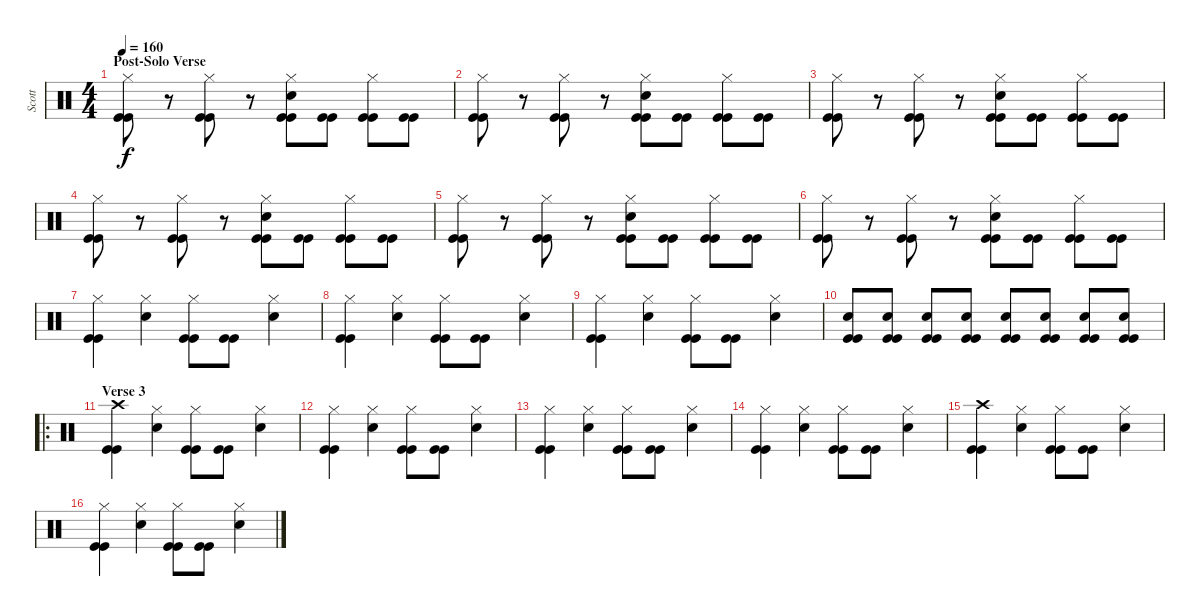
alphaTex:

\track ("Scott" "Scott") {instrument percussion}
\staff {score}
\articulation defaults
\ts (4 4)
\section ("" "Post-Solo Verse")
\tempo 160
\clef neutral
\ks c
("Hi-Hat (closed)" "Kick (hit)" "Kick (hit)").8{dy f} r.8 ("Hi-Hat (closed)" "Kick (hit)" "Kick (hit)").8 r.8 ("Hi-Hat (closed)" "Snare (hit) 2" "Kick (hit)" "Kick (hit)").8 ("Kick (hit)" "Kick (hit)").8 ("Hi-Hat (closed)" "Kick (hit)" "Kick (hit)").8 ("Kick (hit)" "Kick (hit)").8 |
("Hi-Hat (closed)" "Kick (hit)" "Kick (hit)").8 r.8 ("Hi-Hat (closed)" "Kick (hit)" "Kick (hit)").8 r.8 ("Hi-Hat (closed)" "Snare (hit) 2" "Kick (hit)" "Kick (hit)").8 ("Kick (hit)" "Kick (hit)").8 ("Hi-Hat (closed)" "Kick (hit)" "Kick (hit)").8 ("Kick (hit)" "Kick (hit)").8 |
("Hi-Hat (closed)" "Kick (hit)" "Kick (hit)").8 r.8 ("Hi-Hat (closed)" "Kick (hit)" "Kick (hit)").8 r.8 ("Hi-Hat (closed)" "Snare (hit) 2" "Kick (hit)" "Kick (hit)").8 ("Kick (hit)" "Kick (hit)").8 ("Hi-Hat (closed)" "Kick (hit)" "Kick (hit)").8 ("Kick (hit)" "Kick (hit)").8 |
("Hi-Hat (closed)" "Kick (hit)" "Kick (hit)").8 r.8 ("Hi-Hat (closed)" "Kick (hit)" "Kick (hit)").8 r.8 ("Hi-Hat (closed)" "Snare (hit) 2" "Kick (hit)" "Kick (hit)").8 ("Kick (hit)" "Kick (hit)").8 ("Hi-Hat (closed)" "Kick (hit)" "Kick (hit)").8 ("Kick (hit)" "Kick (hit)").8 |
("Hi-Hat (closed)" "Kick (hit)" "Kick (hit)").8 r.8 ("Hi-Hat (closed)" "Kick (hit)" "Kick (hit)").8 r.8 ("Hi-Hat (closed)" "Snare (hit) 2" "Kick (hit)" "Kick (hit)").8 ("Kick (hit)" "Kick (hit)").8 ("Hi-Hat (closed)" "Kick (hit)" "Kick (hit)").8 ("Kick (hit)" "Kick (hit)").8 |
("Hi-Hat (closed)" "Kick (hit)" "Kick (hit)").8 r.8 ("Hi-Hat (closed)" "Kick (hit)" "Kick (hit)").8 r.8 ("Hi-Hat (closed)" "Snare (hit) 2" "Kick (hit)" "Kick (hit)").8 ("Kick (hit)" "Kick (hit)").8 ("Hi-Hat (closed)" "Kick (hit)" "Kick (hit)").8 ("Kick (hit)" "Kick (hit)").8 |
("Hi-Hat (closed)" "Kick (hit)" "Kick (hit)").4 ("Hi-Hat (closed)" "Snare (hit) 2").4 ("Hi-Hat (closed)" "Kick (hit)" "Kick (hit)").8 ("Kick (hit)" "Kick (hit)").8 ("Hi-Hat (closed)" "Snare (hit) 2").4 |
("Hi-Hat (closed)" "Kick (hit)" "Kick (hit)").4 ("Hi-Hat (closed)" "Snare (hit) 2").4 ("Hi-Hat (closed)" "Kick (hit)" "Kick (hit)").8 ("Kick (hit)" "Kick (hit)").8 ("Hi-Hat (closed)" "Snare (hit) 2").4 |
("Hi-Hat (closed)" "Kick (hit)" "Kick (hit)").4 ("Hi-Hat (closed)" "Snare (hit) 2").4 ("Hi-Hat (closed)" "Kick (hit)" "Kick (hit)").8 ("Kick (hit)" "Kick (hit)").8 ("Hi-Hat (closed)" "Snare (hit) 2").4 |
("Snare (hit) 2" "Kick (hit)" "Kick (hit)").8 ("Snare (hit) 2" "Kick (hit)" "Kick (hit)").8 ("Snare (hit) 2" "Kick (hit)" "Kick (hit)").8 ("Snare (hit) 2" "Kick (hit)" "Kick (hit)").8 ("Snare (hit) 2" "Kick (hit)" "Kick (hit)").8 ("Snare (hit) 2" "Kick (hit)" "Kick (hit)").8 ("Snare (hit) 2" "Kick (hit)" "Kick (hit)").8 ("Snare (hit) 2" "Kick (hit)" "Kick (hit)").8 |
\ro
\section ("" "Verse 3")
("Crash high (hit)" "Kick (hit)" "Kick (hit)").4 ("Hi-Hat (closed)" "Snare (hit) 2").4 ("Hi-Hat (closed)" "Kick (hit)" "Kick (hit)").8 ("Kick (hit)" "Kick (hit)").8 ("Hi-Hat (closed)" "Snare (hit) 2").4 |
("Hi-Hat (closed)" "Kick (hit)" "Kick (hit)").4 ("Hi-Hat (closed)" "Snare (hit) 2").4 ("Hi-Hat (closed)" "Kick (hit)" "Kick (hit)").8 ("Kick (hit)" "Kick (hit)").8 ("Hi-Hat (closed)" "Snare (hit) 2").4 |
("Hi-Hat (closed)" "Kick (hit)" "Kick (hit)").4 ("Hi-Hat (closed)" "Snare (hit) 2").4 ("Hi-Hat (closed)" "Kick (hit)" "Kick (hit)").8 ("Kick (hit)" "Kick (hit)").8 ("Hi-Hat (closed)" "Snare (hit) 2").4 |
("Hi-Hat (closed)" "Kick (hit)" "Kick (hit)").4 ("Hi-Hat (closed)" "Snare (hit) 2").4 ("Hi-Hat (closed)" "Kick (hit)" "Kick (hit)").8 ("Kick (hit)" "Kick (hit)").8 ("Hi-Hat (closed)" "Snare (hit) 2").4 |
("Crash high (hit)" "Kick (hit)" "Kick (hit)").4 ("Hi-Hat (closed)" "Snare (hit) 2").4 ("Hi-Hat (closed)" "Kick (hit)" "Kick (hit)").8 ("Kick (hit)" "Kick (hit)").8 ("Hi-Hat (closed)" "Snare (hit) 2").4 |
("Hi-Hat (closed)" "Kick (hit)" "Kick (hit)").4 ("Hi-Hat (closed)" "Snare (hit) 2").4 ("Hi-Hat (closed)" "Kick (hit)" "Kick (hit)").8 ("Kick (hit)" "Kick (hit)").8 ("Hi-Hat (closed)" "Snare (hit) 2").4
